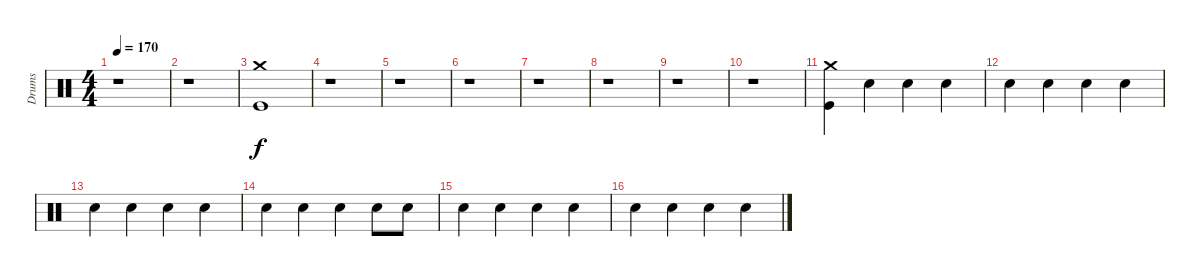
\track ("Drums" "Drums") {instrument percussion}
\staff {score}
\articulation defaults
\ts (4 4)
\tempo 170
\clef neutral
\ks c
r.1{dy f} |
r.1 |
("Crash medium (hit)" "Kick (hit)").1 |
r.1 |
r.1 |
r.1 |
r.1 |
r.1 |
r.1 |
r.1 |
("Crash medium (hit)" "Kick (hit)").4 "Hand Clap (hit)".4 "Hand Clap (hit)".4 "Hand Clap (hit)".4 |
"Hand Clap (hit)".4 "Hand Clap (hit)".4 "Hand Clap (hit)".4 "Hand Clap (hit)".4 |
"Hand Clap (hit)".4 "Hand Clap (hit)".4 "Hand Clap (hit)".4 "Hand Clap (hit)".4 |
"Hand Clap (hit)".4 "Hand Clap (hit)".4 "Hand Clap (hit)".4 "Hand Clap (hit)".8 "Hand Clap (hit)".8 |
"Hand Clap (hit)".4 "Hand Clap (hit)".4 "Hand Clap (hit)".4 "Hand Clap (hit)".4 |
"Hand Clap (hit)".4 "Hand Clap (hit)".4 "Hand Clap (hit)".4 "Hand Clap (hit)".4
